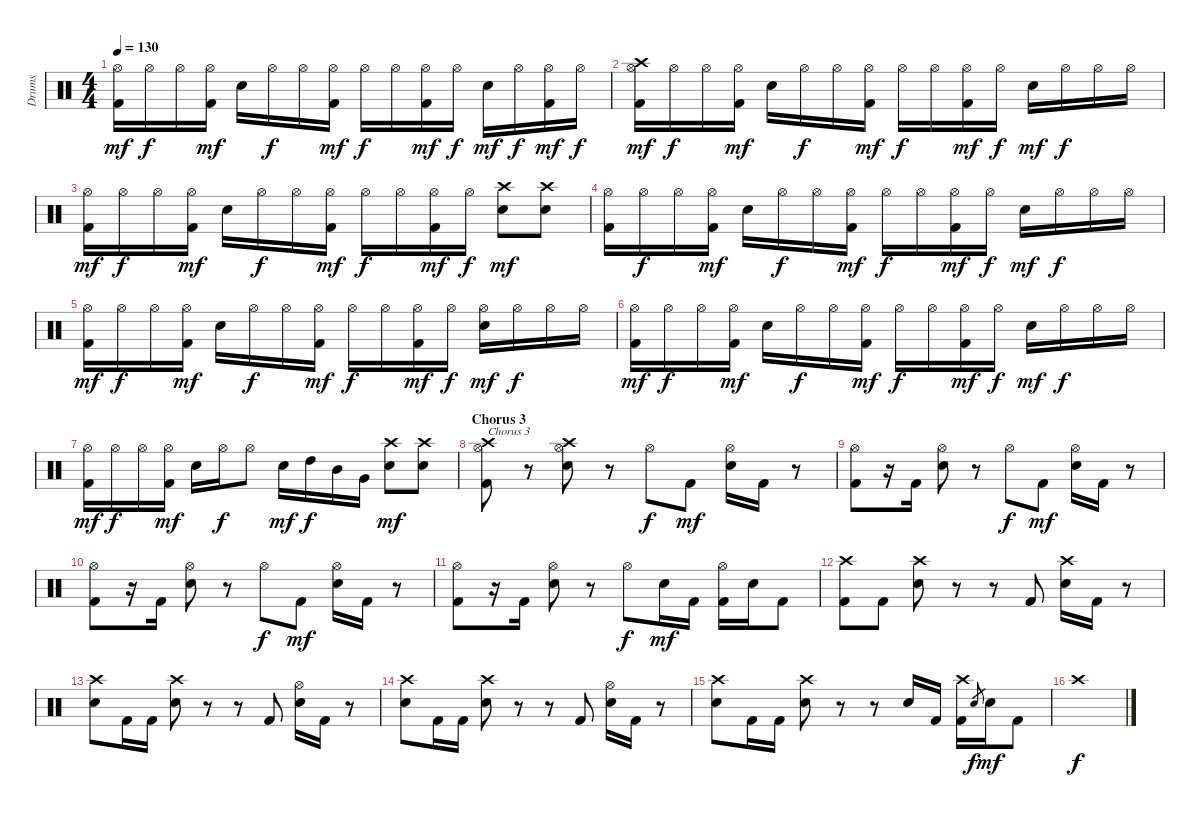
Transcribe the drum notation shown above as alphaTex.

\track ("Drums" "Drums") {instrument percussion}
\staff {score}
\articulation defaults
\ts (4 4)
\tempo 130
\clef neutral
\ks c
("Hi-Hat (open)" "Kick (hit) 2").16{dy mf} "Hi-Hat (open)".16{dy f} "Hi-Hat (open)".16 ("Hi-Hat (open)" "Kick (hit) 2").16{dy mf} "Electric Snare (hit)".16 "Hi-Hat (open)".16{dy f} "Hi-Hat (open)".16 ("Hi-Hat (open)" "Kick (hit) 2").16{dy mf} "Hi-Hat (open)".16{dy f} "Hi-Hat (open)".16 ("Hi-Hat (open)" "Kick (hit) 2").16{dy mf} "Hi-Hat (open)".16{dy f} "Electric Snare (hit)".16{dy mf} "Hi-Hat (open)".16{dy f} ("Hi-Hat (open)" "Kick (hit) 2").16{dy mf} "Hi-Hat (open)".16{dy f} |
("Crash high (hit)" "Hi-Hat (open)" "Kick (hit) 2").16{dy mf} "Hi-Hat (open)".16{dy f} "Hi-Hat (open)".16 ("Hi-Hat (open)" "Kick (hit) 2").16{dy mf} "Electric Snare (hit)".16 "Hi-Hat (open)".16{dy f} "Hi-Hat (open)".16 ("Hi-Hat (open)" "Kick (hit) 2").16{dy mf} "Hi-Hat (open)".16{dy f} "Hi-Hat (open)".16 ("Hi-Hat (open)" "Kick (hit) 2").16{dy mf} "Hi-Hat (open)".16{dy f} "Electric Snare (hit)".16{dy mf} "Hi-Hat (open)".16{dy f} "Hi-Hat (open)".16 "Hi-Hat (open)".16 |
("Hi-Hat (open)" "Kick (hit) 2").16{dy mf} "Hi-Hat (open)".16{dy f} "Hi-Hat (open)".16 ("Hi-Hat (open)" "Kick (hit) 2").16{dy mf} "Electric Snare (hit)".16 "Hi-Hat (open)".16{dy f} "Hi-Hat (open)".16 ("Hi-Hat (open)" "Kick (hit) 2").16{dy mf} "Hi-Hat (open)".16{dy f} "Hi-Hat (open)".16 ("Hi-Hat (open)" "Kick (hit) 2").16{dy mf} "Hi-Hat (open)".16{dy f} ("Crash high (hit)" "Electric Snare (hit)").8{dy mf} ("Crash high (hit)" "Electric Snare (hit)").8 |
("Hi-Hat (open)" "Kick (hit) 2").16 "Hi-Hat (open)".16{dy f} "Hi-Hat (open)".16 ("Hi-Hat (open)" "Kick (hit) 2").16{dy mf} "Electric Snare (hit)".16 "Hi-Hat (open)".16{dy f} "Hi-Hat (open)".16 ("Hi-Hat (open)" "Kick (hit) 2").16{dy mf} "Hi-Hat (open)".16{dy f} "Hi-Hat (open)".16 ("Hi-Hat (open)" "Kick (hit) 2").16{dy mf} "Hi-Hat (open)".16{dy f} "Electric Snare (hit)".16{dy mf} "Hi-Hat (open)".16{dy f} "Hi-Hat (open)".16 "Hi-Hat (open)".16 |
("Hi-Hat (open)" "Kick (hit) 2").16{dy mf} "Hi-Hat (open)".16{dy f} "Hi-Hat (open)".16 ("Hi-Hat (open)" "Kick (hit) 2").16{dy mf} "Electric Snare (hit)".16 "Hi-Hat (open)".16{dy f} "Hi-Hat (open)".16 ("Hi-Hat (open)" "Kick (hit) 2").16{dy mf} "Hi-Hat (open)".16{dy f} "Hi-Hat (open)".16 ("Hi-Hat (open)" "Kick (hit) 2").16{dy mf} "Hi-Hat (open)".16{dy f} ("Hi-Hat (open)" "Electric Snare (hit)").16{dy mf} "Hi-Hat (open)".16{dy f} "Hi-Hat (open)".16 "Hi-Hat (open)".16 |
("Hi-Hat (open)" "Kick (hit) 2").16{dy mf} "Hi-Hat (open)".16{dy f} "Hi-Hat (open)".16 ("Hi-Hat (open)" "Kick (hit) 2").16{dy mf} "Electric Snare (hit)".16 "Hi-Hat (open)".16{dy f} "Hi-Hat (open)".16 ("Hi-Hat (open)" "Kick (hit) 2").16{dy mf} "Hi-Hat (open)".16{dy f} "Hi-Hat (open)".16 ("Hi-Hat (open)" "Kick (hit) 2").16{dy mf} "Hi-Hat (open)".16{dy f} "Electric Snare (hit)".16{dy mf} "Hi-Hat (open)".16{dy f} "Hi-Hat (open)".16 "Hi-Hat (open)".16 |
("Hi-Hat (open)" "Kick (hit) 2").16{dy mf} "Hi-Hat (open)".16{dy f} "Hi-Hat (open)".16 ("Hi-Hat (open)" "Kick (hit) 2").16{dy mf} "Electric Snare (hit)".16 "Hi-Hat (open)".16{dy f} "Hi-Hat (open)".8 "Electric Snare (hit)".16{dy mf} "High Tom (hit)".16{dy f} "Mid Tom (hit)".16 "Very Low Tom (hit)".16 ("Crash high (hit)" "Electric Snare (hit)").8{dy mf} ("Crash high (hit)" "Electric Snare (hit)").8 |
\section ("" "Chorus 3")
("Crash high (hit)" "Hi-Hat (open)" "Kick (hit) 2").8{txt "Chorus 3"} r.8 ("Crash high (hit)" "Hi-Hat (open)" "Electric Snare (hit)").8 r.8 "Hi-Hat (open)".8{dy f} "Kick (hit) 2".8{dy mf} ("Hi-Hat (open)" "Electric Snare (hit)").16 "Kick (hit) 2".16 r.8 |
("Hi-Hat (open)" "Kick (hit) 2").8 r.16 "Kick (hit) 2".16 ("Hi-Hat (open)" "Electric Snare (hit)").8 r.8 "Hi-Hat (open)".8{dy f} "Kick (hit) 2".8{dy mf} ("Hi-Hat (open)" "Electric Snare (hit)").16 "Kick (hit) 2".16 r.8 |
("Hi-Hat (open)" "Kick (hit) 2").8 r.16 "Kick (hit) 2".16 ("Hi-Hat (open)" "Electric Snare (hit)").8 r.8 "Hi-Hat (open)".8{dy f} "Kick (hit) 2".8{dy mf} ("Hi-Hat (open)" "Electric Snare (hit)").16 "Kick (hit) 2".16 r.8 |
("Hi-Hat (open)" "Kick (hit) 2").8 r.16 "Kick (hit) 2".16 ("Hi-Hat (open)" "Electric Snare (hit)").8 r.8 "Hi-Hat (open)".8{dy f} "Electric Snare (hit)".16{dy mf} "Kick (hit) 2".16 ("Hi-Hat (open)" "Kick (hit) 2").16 "Electric Snare (hit)".16 "Kick (hit) 2".8 |
("Crash high (hit)" "Kick (hit) 2").8 "Kick (hit) 2".8 ("Crash high (hit)" "Electric Snare (hit)").8 r.8 r.8 "Kick (hit) 2".8 ("Crash high (hit)" "Electric Snare (hit)").16 "Kick (hit) 2".16 r.8 |
("Crash high (hit)" "Electric Snare (hit)").8 "Kick (hit) 2".16 "Kick (hit) 2".16 ("Crash high (hit)" "Electric Snare (hit)").8 r.8 r.8 "Kick (hit) 2".8 ("Hi-Hat (open)" "Electric Snare (hit)").16 "Kick (hit) 2".16 r.8 |
("Crash high (hit)" "Electric Snare (hit)").8 "Kick (hit) 2".16 "Kick (hit) 2".16 ("Crash high (hit)" "Electric Snare (hit)").8 r.8 r.8 "Kick (hit) 2".8 ("Hi-Hat (open)" "Electric Snare (hit)").16 "Kick (hit) 2".16 r.8 |
("Crash high (hit)" "Electric Snare (hit)").8 "Kick (hit) 2".16 "Kick (hit) 2".16 ("Crash high (hit)" "Electric Snare (hit)").8 r.8 r.8 "Electric Snare (hit)".16 "Kick (hit) 2".16 ("Crash high (hit)" "Kick (hit) 2").16 "Electric Snare (hit)".8{gr dy f} "Electric Snare (hit)".16{dy mf} "Kick (hit) 2".8 |
"Crash high (hit)".1{dy f}
